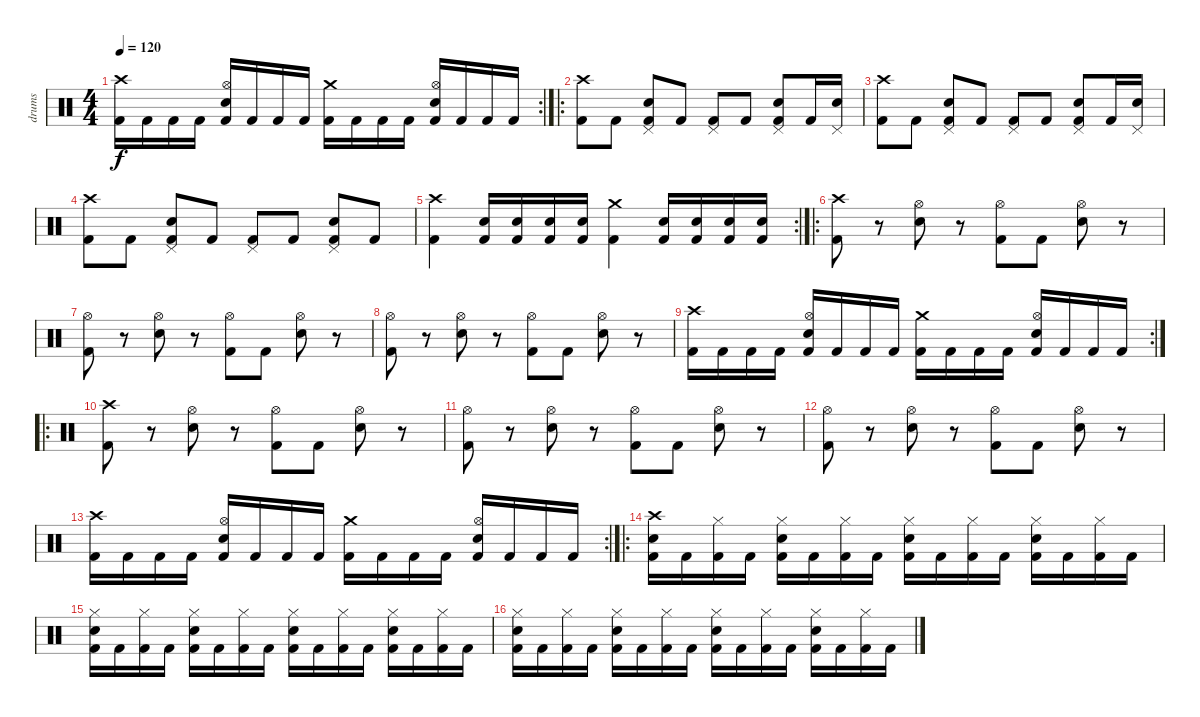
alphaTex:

\track ("drums" "drums") {instrument percussion}
\staff {score}
\articulation defaults
\rc 2
\ts (4 4)
\tempo 120
\clef neutral
\ks c
("Crash high (hit)" "Kick (hit) 2").16{dy f} "Kick (hit) 2".16 "Kick (hit) 2".16 "Kick (hit) 2".16 ("Hi-Hat (open)" "Snare (hit) 2" "Kick (hit) 2").16 "Kick (hit) 2".16 "Kick (hit) 2".16 "Kick (hit) 2".16 ("Crash medium (hit)" "Kick (hit) 2").16 "Kick (hit) 2".16 "Kick (hit) 2".16 "Kick (hit) 2".16 ("Hi-Hat (open)" "Snare (hit) 2" "Kick (hit) 2").16 "Kick (hit) 2".16 "Kick (hit) 2".16 "Kick (hit) 2".16 |
\ro
("Crash high (hit)" "Kick (hit) 2").8 "Kick (hit) 2".8 ("Pedal Hi-Hat (hit)" "Snare (hit) 2" "Kick (hit) 2").8 "Kick (hit) 2".8 ("Pedal Hi-Hat (hit)" "Kick (hit) 2").8 "Kick (hit) 2".8 ("Pedal Hi-Hat (hit)" "Snare (hit) 2" "Kick (hit) 2").8 "Kick (hit) 2".16 ("Pedal Hi-Hat (hit)" "Snare (hit) 2").16 |
("Crash high (hit)" "Kick (hit) 2").8 "Kick (hit) 2".8 ("Pedal Hi-Hat (hit)" "Snare (hit) 2" "Kick (hit) 2").8 "Kick (hit) 2".8 ("Pedal Hi-Hat (hit)" "Kick (hit) 2").8 "Kick (hit) 2".8 ("Pedal Hi-Hat (hit)" "Snare (hit) 2" "Kick (hit) 2").8 "Kick (hit) 2".16 ("Pedal Hi-Hat (hit)" "Snare (hit) 2").16 |
("Crash high (hit)" "Kick (hit) 2").8 "Kick (hit) 2".8 ("Pedal Hi-Hat (hit)" "Snare (hit) 2" "Kick (hit) 2").8 "Kick (hit) 2".8 ("Pedal Hi-Hat (hit)" "Kick (hit) 2").8 "Kick (hit) 2".8 ("Pedal Hi-Hat (hit)" "Snare (hit) 2" "Kick (hit) 2").8 "Kick (hit) 2".8 |
\rc 2
("Crash high (hit)" "Kick (hit) 2").4 ("Snare (hit) 2" "Kick (hit) 2").16 ("Snare (hit) 2" "Kick (hit) 2").16 ("Snare (hit) 2" "Kick (hit) 2").16 ("Snare (hit) 2" "Kick (hit) 2").16 ("Crash medium (hit)" "Kick (hit) 2").4 ("Snare (hit) 2" "Kick (hit) 2").16 ("Snare (hit) 2" "Kick (hit) 2").16 ("Snare (hit) 2" "Kick (hit) 2").16 ("Snare (hit) 2" "Kick (hit) 2").16 |
\ro
("Crash high (hit)" "Kick (hit) 2").8 r.8 ("Hi-Hat (open)" "Snare (hit) 2").8 r.8 ("Hi-Hat (open)" "Kick (hit) 2").8 "Kick (hit) 2".8 ("Hi-Hat (open)" "Snare (hit) 2").8 r.8 |
("Hi-Hat (open)" "Kick (hit) 2").8 r.8 ("Hi-Hat (open)" "Snare (hit) 2").8 r.8 ("Hi-Hat (open)" "Kick (hit) 2").8 "Kick (hit) 2".8 ("Hi-Hat (open)" "Snare (hit) 2").8 r.8 |
("Hi-Hat (open)" "Kick (hit) 2").8 r.8 ("Hi-Hat (open)" "Snare (hit) 2").8 r.8 ("Hi-Hat (open)" "Kick (hit) 2").8 "Kick (hit) 2".8 ("Hi-Hat (open)" "Snare (hit) 2").8 r.8 |
\rc 2
("Crash high (hit)" "Kick (hit) 2").16 "Kick (hit) 2".16 "Kick (hit) 2".16 "Kick (hit) 2".16 ("Hi-Hat (open)" "Snare (hit) 2" "Kick (hit) 2").16 "Kick (hit) 2".16 "Kick (hit) 2".16 "Kick (hit) 2".16 ("Crash medium (hit)" "Kick (hit) 2").16 "Kick (hit) 2".16 "Kick (hit) 2".16 "Kick (hit) 2".16 ("Hi-Hat (open)" "Snare (hit) 2" "Kick (hit) 2").16 "Kick (hit) 2".16 "Kick (hit) 2".16 "Kick (hit) 2".16 |
\ro
("Crash high (hit)" "Kick (hit) 2").8 r.8 ("Hi-Hat (open)" "Snare (hit) 2").8 r.8 ("Hi-Hat (open)" "Kick (hit) 2").8 "Kick (hit) 2".8 ("Hi-Hat (open)" "Snare (hit) 2").8 r.8 |
("Hi-Hat (open)" "Kick (hit) 2").8 r.8 ("Hi-Hat (open)" "Snare (hit) 2").8 r.8 ("Hi-Hat (open)" "Kick (hit) 2").8 "Kick (hit) 2".8 ("Hi-Hat (open)" "Snare (hit) 2").8 r.8 |
("Hi-Hat (open)" "Kick (hit) 2").8 r.8 ("Hi-Hat (open)" "Snare (hit) 2").8 r.8 ("Hi-Hat (open)" "Kick (hit) 2").8 "Kick (hit) 2".8 ("Hi-Hat (open)" "Snare (hit) 2").8 r.8 |
\rc 2
("Crash high (hit)" "Kick (hit) 2").16 "Kick (hit) 2".16 "Kick (hit) 2".16 "Kick (hit) 2".16 ("Hi-Hat (open)" "Snare (hit) 2" "Kick (hit) 2").16 "Kick (hit) 2".16 "Kick (hit) 2".16 "Kick (hit) 2".16 ("Crash medium (hit)" "Kick (hit) 2").16 "Kick (hit) 2".16 "Kick (hit) 2".16 "Kick (hit) 2".16 ("Hi-Hat (open)" "Snare (hit) 2" "Kick (hit) 2").16 "Kick (hit) 2".16 "Kick (hit) 2".16 "Kick (hit) 2".16 |
\ro
("Crash high (hit)" "Snare (hit) 2" "Kick (hit) 2").16 "Kick (hit) 2".16 ("Hi-Hat (closed)" "Kick (hit) 2").16 "Kick (hit) 2".16 ("Hi-Hat (closed)" "Snare (hit) 2" "Kick (hit) 2").16 "Kick (hit) 2".16 ("Hi-Hat (closed)" "Kick (hit) 2").16 "Kick (hit) 2".16 ("Hi-Hat (closed)" "Snare (hit) 2" "Kick (hit) 2").16 "Kick (hit) 2".16 ("Hi-Hat (closed)" "Kick (hit) 2").16 "Kick (hit) 2".16 ("Hi-Hat (closed)" "Snare (hit) 2" "Kick (hit) 2").16 "Kick (hit) 2".16 ("Hi-Hat (closed)" "Kick (hit) 2").16 "Kick (hit) 2".16 |
("Hi-Hat (closed)" "Snare (hit) 2" "Kick (hit) 2").16 "Kick (hit) 2".16 ("Hi-Hat (closed)" "Kick (hit) 2").16 "Kick (hit) 2".16 ("Hi-Hat (closed)" "Snare (hit) 2" "Kick (hit) 2").16 "Kick (hit) 2".16 ("Hi-Hat (closed)" "Kick (hit) 2").16 "Kick (hit) 2".16 ("Hi-Hat (closed)" "Snare (hit) 2" "Kick (hit) 2").16 "Kick (hit) 2".16 ("Hi-Hat (closed)" "Kick (hit) 2").16 "Kick (hit) 2".16 ("Hi-Hat (closed)" "Snare (hit) 2" "Kick (hit) 2").16 "Kick (hit) 2".16 ("Hi-Hat (closed)" "Kick (hit) 2").16 "Kick (hit) 2".16 |
("Hi-Hat (closed)" "Snare (hit) 2" "Kick (hit) 2").16 "Kick (hit) 2".16 ("Hi-Hat (closed)" "Kick (hit) 2").16 "Kick (hit) 2".16 ("Hi-Hat (closed)" "Snare (hit) 2" "Kick (hit) 2").16 "Kick (hit) 2".16 ("Hi-Hat (closed)" "Kick (hit) 2").16 "Kick (hit) 2".16 ("Hi-Hat (closed)" "Snare (hit) 2" "Kick (hit) 2").16 "Kick (hit) 2".16 ("Hi-Hat (closed)" "Kick (hit) 2").16 "Kick (hit) 2".16 ("Hi-Hat (closed)" "Snare (hit) 2" "Kick (hit) 2").16 "Kick (hit) 2".16 ("Hi-Hat (closed)" "Kick (hit) 2").16 "Kick (hit) 2".16
